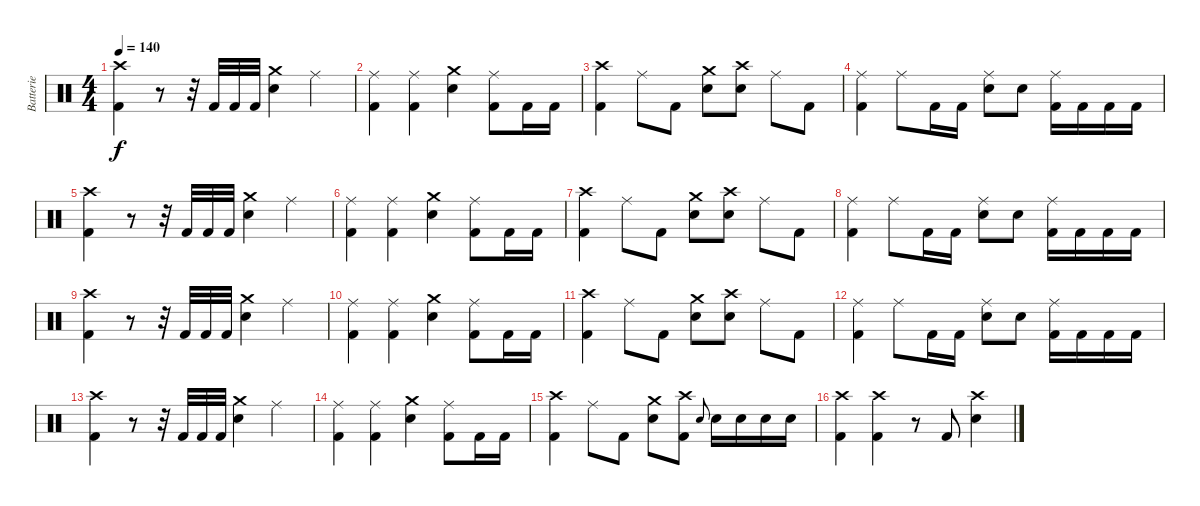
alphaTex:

\track ("Batterie" "Batterie") {instrument percussion}
\staff {score}
\articulation defaults
\ts (4 4)
\tempo 140
\clef neutral
\ks c
("Crash high (hit)" "Kick (hit) 2").4{dy f volume 13} r.8 r.32 "Kick (hit) 2".32 "Kick (hit) 2".32 "Kick (hit) 2".32 ("Crash medium (hit)" "Electric Snare (hit)").4 "Ride (middle)".4 |
("Ride (middle)" "Kick (hit) 2").4 ("Ride (middle)" "Kick (hit) 2").4 ("Crash medium (hit)" "Electric Snare (hit)").4 ("Ride (middle)" "Kick (hit) 2").8 "Kick (hit) 2".16 "Kick (hit) 2".16 |
("Crash high (hit)" "Kick (hit) 2").4 "Ride (middle)".8 "Kick (hit) 2".8 ("Crash medium (hit)" "Electric Snare (hit)").8 ("Crash high (hit)" "Electric Snare (hit)").8 "Ride (middle)".8 "Kick (hit) 2".8 |
("Ride (middle)" "Kick (hit) 2").4 "Ride (middle)".8 "Kick (hit) 2".16 "Kick (hit) 2".16 ("Ride (middle)" "Electric Snare (hit)").8 "Electric Snare (hit)".8 ("Ride (middle)" "Kick (hit) 2").16 "Kick (hit) 2".16 "Kick (hit) 2".16 "Kick (hit) 2".16 |
("Crash high (hit)" "Kick (hit) 2").4 r.8 r.32 "Kick (hit) 2".32 "Kick (hit) 2".32 "Kick (hit) 2".32 ("Crash medium (hit)" "Electric Snare (hit)").4 "Ride (middle)".4 |
("Ride (middle)" "Kick (hit) 2").4 ("Ride (middle)" "Kick (hit) 2").4 ("Crash medium (hit)" "Electric Snare (hit)").4 ("Ride (middle)" "Kick (hit) 2").8 "Kick (hit) 2".16 "Kick (hit) 2".16 |
("Crash high (hit)" "Kick (hit) 2").4 "Ride (middle)".8 "Kick (hit) 2".8 ("Crash medium (hit)" "Electric Snare (hit)").8 ("Crash high (hit)" "Electric Snare (hit)").8 "Ride (middle)".8 "Kick (hit) 2".8 |
("Ride (middle)" "Kick (hit) 2").4 "Ride (middle)".8 "Kick (hit) 2".16 "Kick (hit) 2".16 ("Ride (middle)" "Electric Snare (hit)").8 "Electric Snare (hit)".8 ("Ride (middle)" "Kick (hit) 2").16 "Kick (hit) 2".16 "Kick (hit) 2".16 "Kick (hit) 2".16 |
("Crash high (hit)" "Kick (hit) 2").4 r.8 r.32 "Kick (hit) 2".32 "Kick (hit) 2".32 "Kick (hit) 2".32 ("Crash medium (hit)" "Electric Snare (hit)").4 "Ride (middle)".4 |
("Ride (middle)" "Kick (hit) 2").4 ("Ride (middle)" "Kick (hit) 2").4 ("Crash medium (hit)" "Electric Snare (hit)").4 ("Ride (middle)" "Kick (hit) 2").8 "Kick (hit) 2".16 "Kick (hit) 2".16 |
("Crash high (hit)" "Kick (hit) 2").4 "Ride (middle)".8 "Kick (hit) 2".8 ("Crash medium (hit)" "Electric Snare (hit)").8 ("Crash high (hit)" "Electric Snare (hit)").8 "Ride (middle)".8 "Kick (hit) 2".8 |
("Ride (middle)" "Kick (hit) 2").4 "Ride (middle)".8 "Kick (hit) 2".16 "Kick (hit) 2".16 ("Ride (middle)" "Electric Snare (hit)").8 "Electric Snare (hit)".8 ("Ride (middle)" "Kick (hit) 2").16 "Kick (hit) 2".16 "Kick (hit) 2".16 "Kick (hit) 2".16 |
("Crash high (hit)" "Kick (hit) 2").4 r.8 r.32 "Kick (hit) 2".32 "Kick (hit) 2".32 "Kick (hit) 2".32 ("Crash medium (hit)" "Electric Snare (hit)").4 "Ride (middle)".4 |
("Ride (middle)" "Kick (hit) 2").4 ("Ride (middle)" "Kick (hit) 2").4 ("Crash medium (hit)" "Electric Snare (hit)").4 ("Ride (middle)" "Kick (hit) 2").8 "Kick (hit) 2".16 "Kick (hit) 2".16 |
("Crash high (hit)" "Kick (hit) 2").4 "Ride (middle)".8 "Kick (hit) 2".8 ("Crash medium (hit)" "Electric Snare (hit)").8 ("Crash high (hit)" "Kick (hit) 2").8 "Electric Snare (hit)".8{gr onbeat} "Electric Snare (hit)".16 "Electric Snare (hit)".16 "Electric Snare (hit)".16 "Electric Snare (hit)".16 |
("Crash high (hit)" "Kick (hit) 2").4 ("Crash high (hit)" "Kick (hit) 2").4 r.8 "Kick (hit) 2".8 ("Crash high (hit)" "Electric Snare (hit)").4
